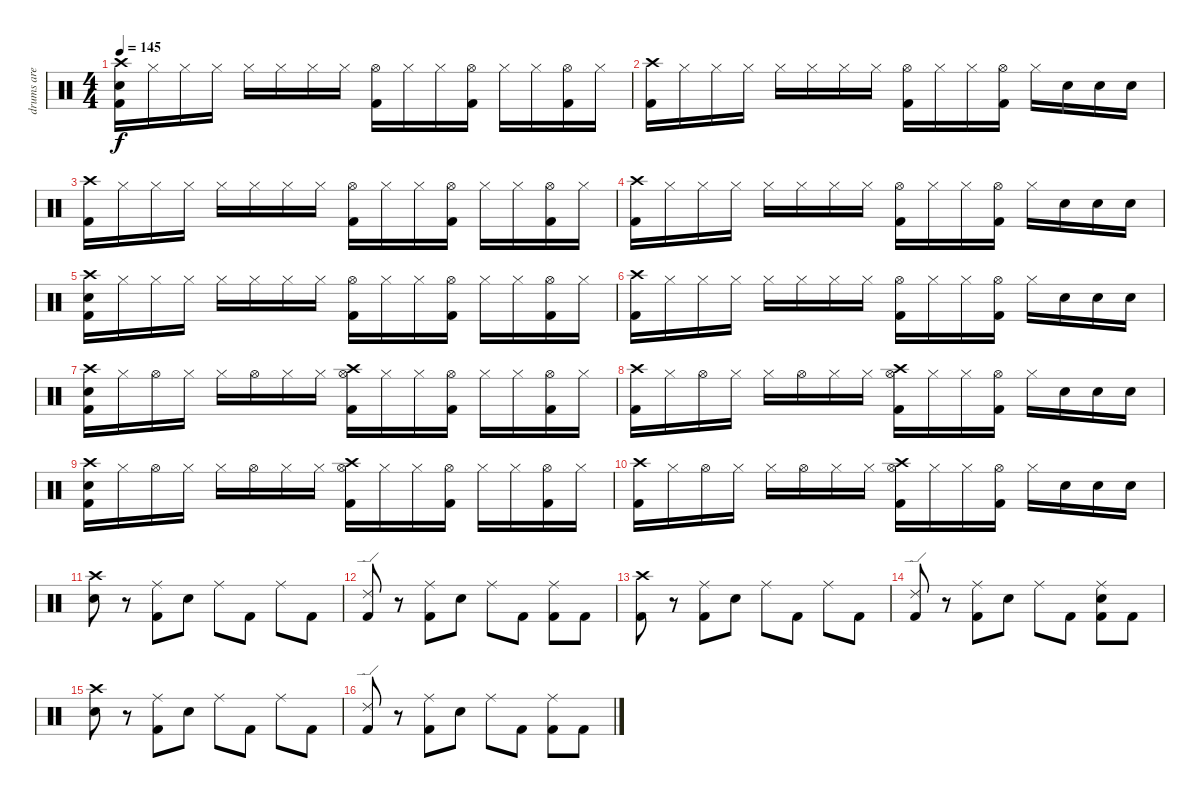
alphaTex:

\track ("drums are cool   >.<" "drums are ") {instrument percussion}
\staff {score}
\articulation defaults
\ts (4 4)
\tempo 145
\clef neutral
\ks c
("Crash high (hit)" "Snare (hit) 2" "Kick (hit) 2").16{dy f} "Hi-Hat (closed)".16 "Hi-Hat (closed)".16 "Hi-Hat (closed)".16 "Hi-Hat (closed)".16 "Hi-Hat (closed)".16 "Hi-Hat (closed)".16 "Hi-Hat (closed)".16 ("Hi-Hat (open)" "Kick (hit) 2").16 "Hi-Hat (closed)".16 "Hi-Hat (closed)".16 ("Hi-Hat (open)" "Kick (hit) 2").16 "Hi-Hat (closed)".16 "Hi-Hat (closed)".16 ("Hi-Hat (open)" "Kick (hit) 2").16 "Hi-Hat (closed)".16 |
("Crash high (hit)" "Kick (hit) 2").16 "Hi-Hat (closed)".16 "Hi-Hat (closed)".16 "Hi-Hat (closed)".16 "Hi-Hat (closed)".16 "Hi-Hat (closed)".16 "Hi-Hat (closed)".16 "Hi-Hat (closed)".16 ("Hi-Hat (open)" "Kick (hit) 2").16 "Hi-Hat (closed)".16 "Hi-Hat (closed)".16 ("Hi-Hat (open)" "Kick (hit) 2").16 "Hi-Hat (closed)".16 "Snare (hit) 2".16 "Snare (hit) 2".16 "Snare (hit) 2".16 |
("Crash high (hit)" "Kick (hit) 2").16 "Hi-Hat (closed)".16 "Hi-Hat (closed)".16 "Hi-Hat (closed)".16 "Hi-Hat (closed)".16 "Hi-Hat (closed)".16 "Hi-Hat (closed)".16 "Hi-Hat (closed)".16 ("Hi-Hat (open)" "Kick (hit) 2").16 "Hi-Hat (closed)".16 "Hi-Hat (closed)".16 ("Hi-Hat (open)" "Kick (hit) 2").16 "Hi-Hat (closed)".16 "Hi-Hat (closed)".16 ("Hi-Hat (open)" "Kick (hit) 2").16 "Hi-Hat (closed)".16 |
("Crash high (hit)" "Kick (hit) 2").16 "Hi-Hat (closed)".16 "Hi-Hat (closed)".16 "Hi-Hat (closed)".16 "Hi-Hat (closed)".16 "Hi-Hat (closed)".16 "Hi-Hat (closed)".16 "Hi-Hat (closed)".16 ("Hi-Hat (open)" "Kick (hit) 2").16 "Hi-Hat (closed)".16 "Hi-Hat (closed)".16 ("Hi-Hat (open)" "Kick (hit) 2").16 "Hi-Hat (closed)".16 "Snare (hit) 2".16 "Snare (hit) 2".16 "Snare (hit) 2".16 |
("Crash high (hit)" "Snare (hit) 2" "Kick (hit) 2").16 "Hi-Hat (closed)".16 "Hi-Hat (closed)".16 "Hi-Hat (closed)".16 "Hi-Hat (closed)".16 "Hi-Hat (closed)".16 "Hi-Hat (closed)".16 "Hi-Hat (closed)".16 ("Hi-Hat (open)" "Kick (hit) 2").16 "Hi-Hat (closed)".16 "Hi-Hat (closed)".16 ("Hi-Hat (open)" "Kick (hit) 2").16 "Hi-Hat (closed)".16 "Hi-Hat (closed)".16 ("Hi-Hat (open)" "Kick (hit) 2").16 "Hi-Hat (closed)".16 |
("Crash high (hit)" "Kick (hit) 2").16 "Hi-Hat (closed)".16 "Hi-Hat (closed)".16 "Hi-Hat (closed)".16 "Hi-Hat (closed)".16 "Hi-Hat (closed)".16 "Hi-Hat (closed)".16 "Hi-Hat (closed)".16 ("Hi-Hat (open)" "Kick (hit) 2").16 "Hi-Hat (closed)".16 "Hi-Hat (closed)".16 ("Hi-Hat (open)" "Kick (hit) 2").16 "Hi-Hat (closed)".16 "Snare (hit) 2".16 "Snare (hit) 2".16 "Snare (hit) 2".16 |
("Crash high (hit)" "Snare (hit) 2" "Kick (hit) 2").16 "Hi-Hat (closed)".16 "Hi-Hat (open)".16 "Hi-Hat (closed)".16 "Hi-Hat (closed)".16 "Hi-Hat (open)".16 "Hi-Hat (closed)".16 "Hi-Hat (closed)".16 ("Crash high (hit)" "Hi-Hat (open)" "Kick (hit) 2").16 "Hi-Hat (closed)".16 "Hi-Hat (closed)".16 ("Hi-Hat (open)" "Kick (hit) 2").16 "Hi-Hat (closed)".16 "Hi-Hat (closed)".16 ("Hi-Hat (open)" "Kick (hit) 2").16 "Hi-Hat (closed)".16 |
("Crash high (hit)" "Kick (hit) 2").16 "Hi-Hat (closed)".16 "Hi-Hat (open)".16 "Hi-Hat (closed)".16 "Hi-Hat (closed)".16 "Hi-Hat (open)".16 "Hi-Hat (closed)".16 "Hi-Hat (closed)".16 ("Crash high (hit)" "Hi-Hat (open)" "Kick (hit) 2").16 "Hi-Hat (closed)".16 "Hi-Hat (closed)".16 ("Hi-Hat (open)" "Kick (hit) 2").16 "Hi-Hat (closed)".16 "Snare (hit) 2".16 "Snare (hit) 2".16 "Snare (hit) 2".16 |
("Crash high (hit)" "Snare (hit) 2" "Kick (hit) 2").16 "Hi-Hat (closed)".16 "Hi-Hat (open)".16 "Hi-Hat (closed)".16 "Hi-Hat (closed)".16 "Hi-Hat (open)".16 "Hi-Hat (closed)".16 "Hi-Hat (closed)".16 ("Crash high (hit)" "Hi-Hat (open)" "Kick (hit) 2").16 "Hi-Hat (closed)".16 "Hi-Hat (closed)".16 ("Hi-Hat (open)" "Kick (hit) 2").16 "Hi-Hat (closed)".16 "Hi-Hat (closed)".16 ("Hi-Hat (open)" "Kick (hit) 2").16 "Hi-Hat (closed)".16 |
("Crash high (hit)" "Kick (hit) 2").16 "Hi-Hat (closed)".16 "Hi-Hat (open)".16 "Hi-Hat (closed)".16 "Hi-Hat (closed)".16 "Hi-Hat (open)".16 "Hi-Hat (closed)".16 "Hi-Hat (closed)".16 ("Crash high (hit)" "Hi-Hat (open)" "Kick (hit) 2").16 "Hi-Hat (closed)".16 "Hi-Hat (closed)".16 ("Hi-Hat (open)" "Kick (hit) 2").16 "Hi-Hat (closed)".16 "Snare (hit) 2".16 "Snare (hit) 2".16 "Snare (hit) 2".16 |
("Crash high (hit)" "Snare (hit) 2").8 r.8 ("Ride (middle)" "Kick (hit) 2").8 "Snare (hit) 2".8 "Ride (middle)".8 "Kick (hit) 2".8 "Ride (middle)".8 "Kick (hit) 2".8 |
("Ride (edge) 2" "Kick (hit) 2").8 r.8 ("Ride (middle)" "Kick (hit) 2").8 "Snare (hit) 2".8 "Ride (middle)".8 "Kick (hit) 2".8 ("Ride (middle)" "Kick (hit) 2").8 "Kick (hit) 2".8 |
("Crash high (hit)" "Kick (hit) 2").8 r.8 ("Ride (middle)" "Kick (hit) 2").8 "Snare (hit) 2".8 "Ride (middle)".8 "Kick (hit) 2".8 "Ride (middle)".8 "Kick (hit) 2".8 |
("Ride (edge) 2" "Kick (hit) 2").8 r.8 ("Ride (middle)" "Kick (hit) 2").8 "Snare (hit) 2".8 "Ride (middle)".8 "Kick (hit) 2".8 ("Ride (middle)" "Snare (hit) 2" "Kick (hit) 2").8 "Kick (hit) 2".8 |
("Crash high (hit)" "Snare (hit) 2").8 r.8 ("Ride (middle)" "Kick (hit) 2").8 "Snare (hit) 2".8 "Ride (middle)".8 "Kick (hit) 2".8 "Ride (middle)".8 "Kick (hit) 2".8 |
("Ride (edge) 2" "Kick (hit) 2").8 r.8 ("Ride (middle)" "Kick (hit) 2").8 "Snare (hit) 2".8 "Ride (middle)".8 "Kick (hit) 2".8 ("Ride (middle)" "Kick (hit) 2").8 "Kick (hit) 2".8
